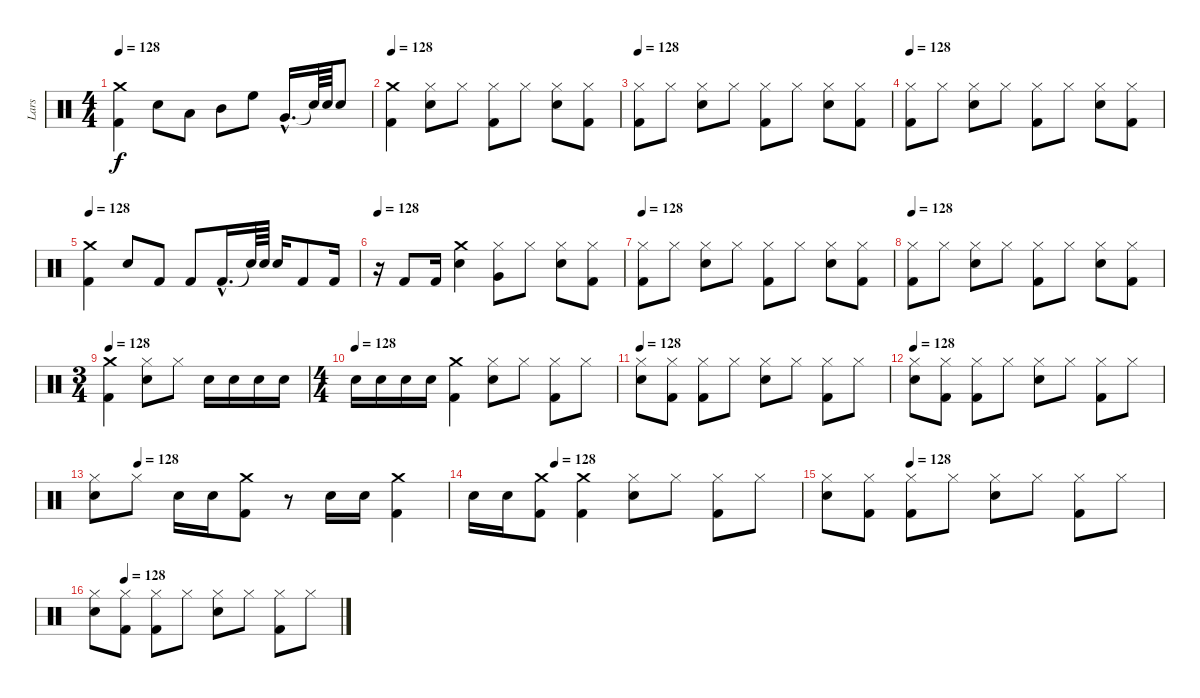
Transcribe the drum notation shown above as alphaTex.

\track ("Lars" "Lars") {instrument percussion}
\staff {score}
\articulation defaults
\ts (4 4)
\tempo 128
\clef neutral
\ks c
("Kick (hit) 2" "Crash medium (hit)").4{dy f} "Snare (hit) 2".8 "Low Tom (hit)".8 "Mid Tom (hit)".8 "High Floor Tom (hit)".8 "Very Low Tom (hit)"{hac}.16{d} "Snare (hit)"{t}.64 "Snare (hit) 2".64 "Snare (hit) 2".8 |
\tempo 128
("Kick (hit) 2" "Crash medium (hit)").4 ("Snare (hit) 2" "Hi-Hat (closed)").8 "Hi-Hat (closed)".8 ("Hi-Hat (closed)" "Kick (hit) 2").8 "Hi-Hat (closed)".8 ("Snare (hit) 2" "Hi-Hat (closed)").8 ("Kick (hit) 2" "Hi-Hat (closed)").8 |
\tempo 128
("Hi-Hat (closed)" "Kick (hit) 2").8 "Hi-Hat (closed)".8 ("Snare (hit) 2" "Hi-Hat (closed)").8 "Hi-Hat (closed)".8 ("Hi-Hat (closed)" "Kick (hit) 2").8 "Hi-Hat (closed)".8 ("Snare (hit) 2" "Hi-Hat (closed)").8 ("Kick (hit) 2" "Hi-Hat (closed)").8 |
\tempo 128
("Hi-Hat (closed)" "Kick (hit) 2").8 "Hi-Hat (closed)".8 ("Snare (hit) 2" "Hi-Hat (closed)").8 "Hi-Hat (closed)".8 ("Hi-Hat (closed)" "Kick (hit) 2").8 "Hi-Hat (closed)".8 ("Snare (hit) 2" "Hi-Hat (closed)").8 ("Kick (hit) 2" "Hi-Hat (closed)").8 |
\tempo 128
("Kick (hit) 2" "Crash medium (hit)").4 "Snare (hit) 2".8 "Kick (hit) 2".8 "Kick (hit) 2".8 "Kick (hit) 2"{hac}.16{d} "Snare (hit)"{t}.64 "Snare (hit) 2".64 "Snare (hit) 2".16 "Kick (hit) 2".8 "Kick (hit) 2".16 |
\tempo 128
r.16 "Kick (hit) 2".8 "Kick (hit) 2".16 ("Snare (hit) 2" "Crash medium (hit)").4 ("Very Low Tom (hit)" "Hi-Hat (closed)").8 "Hi-Hat (closed)".8 ("Snare (hit) 2" "Hi-Hat (closed)").8 ("Kick (hit) 2" "Hi-Hat (closed)").8 |
\tempo 128
("Hi-Hat (closed)" "Kick (hit) 2").8 "Hi-Hat (closed)".8 ("Snare (hit) 2" "Hi-Hat (closed)").8 "Hi-Hat (closed)".8 ("Hi-Hat (closed)" "Kick (hit) 2").8 "Hi-Hat (closed)".8 ("Snare (hit) 2" "Hi-Hat (closed)").8 ("Kick (hit) 2" "Hi-Hat (closed)").8 |
\tempo 128
("Hi-Hat (closed)" "Kick (hit) 2").8 "Hi-Hat (closed)".8 ("Snare (hit) 2" "Hi-Hat (closed)").8 "Hi-Hat (closed)".8 ("Hi-Hat (closed)" "Kick (hit) 2").8 "Hi-Hat (closed)".8 ("Snare (hit) 2" "Hi-Hat (closed)").8 ("Kick (hit) 2" "Hi-Hat (closed)").8 |
\ts (3 4)
\tempo 128
("Kick (hit) 2" "Crash medium (hit)").4 ("Snare (hit) 2" "Hi-Hat (closed)").8 "Hi-Hat (closed)".8 "Snare (hit) 2".16 "Snare (hit) 2".16 "Snare (hit) 2".16 "Snare (hit) 2".16 |
\ts (4 4)
\tempo (128)
"Snare (hit) 2".16 "Snare (hit) 2".16 "Snare (hit) 2".16 "Snare (hit) 2".16 ("Kick (hit) 2" "Crash medium (hit)").4 ("Snare (hit) 2" "Hi-Hat (closed)").8 "Hi-Hat (closed)".8 ("Kick (hit) 2" "Hi-Hat (closed)").8 "Hi-Hat (closed)".8 |
\tempo 128
("Hi-Hat (closed)" "Snare (hit) 2").8 ("Hi-Hat (closed)" "Kick (hit) 2").8 ("Hi-Hat (closed)" "Kick (hit) 2").8 "Hi-Hat (closed)".8 ("Snare (hit) 2" "Hi-Hat (closed)").8 "Hi-Hat (closed)".8 ("Hi-Hat (closed)" "Kick (hit) 2").8 "Hi-Hat (closed)".8 |
\tempo 128
("Hi-Hat (closed)" "Snare (hit) 2").8 ("Hi-Hat (closed)" "Kick (hit) 2").8 ("Hi-Hat (closed)" "Kick (hit) 2").8 "Hi-Hat (closed)".8 ("Snare (hit) 2" "Hi-Hat (closed)").8 "Hi-Hat (closed)".8 ("Hi-Hat (closed)" "Kick (hit) 2").8 "Hi-Hat (closed)".8 |
\tempo (128 0.125)
("Hi-Hat (closed)" "Snare (hit) 2").8 "Hi-Hat (closed)".8 "Snare (hit) 2".16 "Snare (hit) 2".16 ("Kick (hit) 2" "Crash medium (hit)").8 r.8 "Snare (hit) 2".16 "Snare (hit) 2".16 ("Kick (hit) 2" "Crash medium (hit)").4 |
\tempo (128 0.25)
"Snare (hit) 2".16 "Snare (hit) 2".16 ("Kick (hit) 2" "Crash medium (hit)").8 ("Kick (hit) 2" "Crash medium (hit)").4 ("Hi-Hat (closed)" "Snare (hit) 2").8 "Hi-Hat (closed)".8 ("Hi-Hat (closed)" "Kick (hit) 2").8 "Hi-Hat (closed)".8 |
\tempo (128 0.25)
("Hi-Hat (closed)" "Snare (hit) 2").8 ("Hi-Hat (closed)" "Kick (hit) 2").8 ("Hi-Hat (closed)" "Kick (hit) 2").8 "Hi-Hat (closed)".8 ("Snare (hit) 2" "Hi-Hat (closed)").8 "Hi-Hat (closed)".8 ("Hi-Hat (closed)" "Kick (hit) 2").8 "Hi-Hat (closed)".8 |
\tempo (128 0.125)
("Hi-Hat (closed)" "Snare (hit) 2").8 ("Hi-Hat (closed)" "Kick (hit) 2").8 ("Hi-Hat (closed)" "Kick (hit) 2").8 "Hi-Hat (closed)".8 ("Snare (hit) 2" "Hi-Hat (closed)").8 "Hi-Hat (closed)".8 ("Hi-Hat (closed)" "Kick (hit) 2").8 "Hi-Hat (closed)".8
